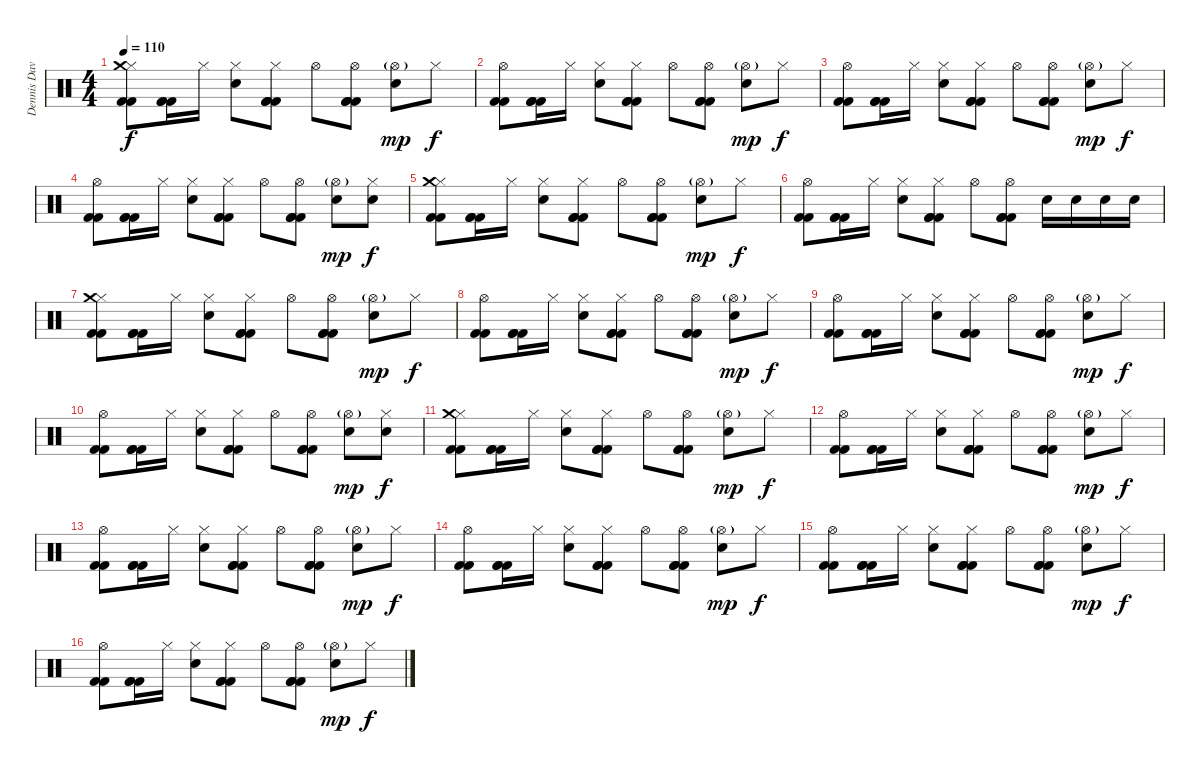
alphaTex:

\track ("Dennis Davis" "Dennis Dav") {instrument percussion}
\staff {score}
\articulation defaults
\ts (4 4)
\tempo 110
\clef neutral
\ks c
("Hi-Hat (closed)" "Crash medium (hit)" "Kick (hit) 2" "Kick (hit) 2").8{dy f} ("Kick (hit) 2" "Kick (hit) 2" "Kick (hit) 2").16 "Hi-Hat (closed)".16 ("Hi-Hat (closed)" "Snare (hit) 2").8 ("Hi-Hat (closed)" "Kick (hit) 2" "Kick (hit) 2" "Kick (hit) 2").8 "Hi-Hat (open)".8 ("Hi-Hat (open)" "Kick (hit) 2" "Kick (hit) 2" "Kick (hit) 2").8 ("Hi-Hat (open)"{g} "Snare (hit) 2").8{dy mp} "Hi-Hat (closed)".8{dy f} |
("Hi-Hat (open)" "Kick (hit) 2" "Kick (hit) 2").8 ("Kick (hit) 2" "Kick (hit) 2" "Kick (hit) 2").16 "Hi-Hat (closed)".16 ("Hi-Hat (closed)" "Snare (hit) 2").8 ("Hi-Hat (closed)" "Kick (hit) 2" "Kick (hit) 2" "Kick (hit) 2").8 "Hi-Hat (open)".8 ("Hi-Hat (open)" "Kick (hit) 2" "Kick (hit) 2" "Kick (hit) 2").8 ("Hi-Hat (open)"{g} "Snare (hit) 2").8{dy mp} "Hi-Hat (closed)".8{dy f} |
("Hi-Hat (open)" "Kick (hit) 2" "Kick (hit) 2").8 ("Kick (hit) 2" "Kick (hit) 2" "Kick (hit) 2").16 "Hi-Hat (closed)".16 ("Hi-Hat (closed)" "Snare (hit) 2").8 ("Hi-Hat (closed)" "Kick (hit) 2" "Kick (hit) 2" "Kick (hit) 2").8 "Hi-Hat (open)".8 ("Hi-Hat (open)" "Kick (hit) 2" "Kick (hit) 2" "Kick (hit) 2").8 ("Hi-Hat (open)"{g} "Snare (hit) 2").8{dy mp} "Hi-Hat (closed)".8{dy f} |
("Hi-Hat (open)" "Kick (hit) 2" "Kick (hit) 2").8 ("Kick (hit) 2" "Kick (hit) 2" "Kick (hit) 2").16 "Hi-Hat (closed)".16 ("Hi-Hat (closed)" "Snare (hit) 2").8 ("Hi-Hat (closed)" "Kick (hit) 2" "Kick (hit) 2" "Kick (hit) 2").8 "Hi-Hat (open)".8 ("Hi-Hat (open)" "Kick (hit) 2" "Kick (hit) 2" "Kick (hit) 2").8 ("Hi-Hat (open)"{g} "Snare (hit) 2").8{dy mp} ("Hi-Hat (closed)" "Snare (hit) 2").8{dy f} |
("Hi-Hat (closed)" "Crash medium (hit)" "Kick (hit) 2" "Kick (hit) 2").8 ("Kick (hit) 2" "Kick (hit) 2" "Kick (hit) 2").16 "Hi-Hat (closed)".16 ("Hi-Hat (closed)" "Snare (hit) 2").8 ("Hi-Hat (closed)" "Kick (hit) 2" "Kick (hit) 2" "Kick (hit) 2").8 "Hi-Hat (open)".8 ("Hi-Hat (open)" "Kick (hit) 2" "Kick (hit) 2" "Kick (hit) 2").8 ("Hi-Hat (open)"{g} "Snare (hit) 2").8{dy mp} "Hi-Hat (closed)".8{dy f} |
("Hi-Hat (open)" "Kick (hit) 2" "Kick (hit) 2").8 ("Kick (hit) 2" "Kick (hit) 2" "Kick (hit) 2").16 "Hi-Hat (closed)".16 ("Hi-Hat (closed)" "Snare (hit) 2").8 ("Hi-Hat (closed)" "Kick (hit) 2" "Kick (hit) 2" "Kick (hit) 2").8 "Hi-Hat (open)".8 ("Hi-Hat (open)" "Kick (hit) 2" "Kick (hit) 2" "Kick (hit) 2").8 "Snare (hit) 2".16 "Snare (hit) 2".16 "Snare (hit) 2".16 "Snare (hit) 2".16 |
("Hi-Hat (closed)" "Crash medium (hit)" "Kick (hit) 2" "Kick (hit) 2").8 ("Kick (hit) 2" "Kick (hit) 2" "Kick (hit) 2").16 "Hi-Hat (closed)".16 ("Hi-Hat (closed)" "Snare (hit) 2").8 ("Hi-Hat (closed)" "Kick (hit) 2" "Kick (hit) 2" "Kick (hit) 2").8 "Hi-Hat (open)".8 ("Hi-Hat (open)" "Kick (hit) 2" "Kick (hit) 2" "Kick (hit) 2").8 ("Hi-Hat (open)"{g} "Snare (hit) 2").8{dy mp} "Hi-Hat (closed)".8{dy f} |
("Hi-Hat (open)" "Kick (hit) 2" "Kick (hit) 2").8 ("Kick (hit) 2" "Kick (hit) 2" "Kick (hit) 2").16 "Hi-Hat (closed)".16 ("Hi-Hat (closed)" "Snare (hit) 2").8 ("Hi-Hat (closed)" "Kick (hit) 2" "Kick (hit) 2" "Kick (hit) 2").8 "Hi-Hat (open)".8 ("Hi-Hat (open)" "Kick (hit) 2" "Kick (hit) 2" "Kick (hit) 2").8 ("Hi-Hat (open)"{g} "Snare (hit) 2").8{dy mp} "Hi-Hat (closed)".8{dy f} |
("Hi-Hat (open)" "Kick (hit) 2" "Kick (hit) 2").8 ("Kick (hit) 2" "Kick (hit) 2" "Kick (hit) 2").16 "Hi-Hat (closed)".16 ("Hi-Hat (closed)" "Snare (hit) 2").8 ("Hi-Hat (closed)" "Kick (hit) 2" "Kick (hit) 2" "Kick (hit) 2").8 "Hi-Hat (open)".8 ("Hi-Hat (open)" "Kick (hit) 2" "Kick (hit) 2" "Kick (hit) 2").8 ("Hi-Hat (open)"{g} "Snare (hit) 2").8{dy mp} "Hi-Hat (closed)".8{dy f} |
("Hi-Hat (open)" "Kick (hit) 2" "Kick (hit) 2").8 ("Kick (hit) 2" "Kick (hit) 2" "Kick (hit) 2").16 "Hi-Hat (closed)".16 ("Hi-Hat (closed)" "Snare (hit) 2").8 ("Hi-Hat (closed)" "Kick (hit) 2" "Kick (hit) 2" "Kick (hit) 2").8 "Hi-Hat (open)".8 ("Hi-Hat (open)" "Kick (hit) 2" "Kick (hit) 2" "Kick (hit) 2").8 ("Hi-Hat (open)"{g} "Snare (hit) 2").8{dy mp} ("Hi-Hat (closed)" "Snare (hit) 2").8{dy f} |
("Hi-Hat (closed)" "Crash medium (hit)" "Kick (hit) 2" "Kick (hit) 2").8 ("Kick (hit) 2" "Kick (hit) 2" "Kick (hit) 2").16 "Hi-Hat (closed)".16 ("Hi-Hat (closed)" "Snare (hit) 2").8 ("Hi-Hat (closed)" "Kick (hit) 2" "Kick (hit) 2" "Kick (hit) 2").8 "Hi-Hat (open)".8 ("Hi-Hat (open)" "Kick (hit) 2" "Kick (hit) 2" "Kick (hit) 2").8 ("Hi-Hat (open)"{g} "Snare (hit) 2").8{dy mp} "Hi-Hat (closed)".8{dy f} |
("Hi-Hat (open)" "Kick (hit) 2" "Kick (hit) 2").8 ("Kick (hit) 2" "Kick (hit) 2" "Kick (hit) 2").16 "Hi-Hat (closed)".16 ("Hi-Hat (closed)" "Snare (hit) 2").8 ("Hi-Hat (closed)" "Kick (hit) 2" "Kick (hit) 2" "Kick (hit) 2").8 "Hi-Hat (open)".8 ("Hi-Hat (open)" "Kick (hit) 2" "Kick (hit) 2" "Kick (hit) 2").8 ("Hi-Hat (open)"{g} "Snare (hit) 2").8{dy mp} "Hi-Hat (closed)".8{dy f} |
("Hi-Hat (open)" "Kick (hit) 2" "Kick (hit) 2").8 ("Kick (hit) 2" "Kick (hit) 2" "Kick (hit) 2").16 "Hi-Hat (closed)".16 ("Hi-Hat (closed)" "Snare (hit) 2").8 ("Hi-Hat (closed)" "Kick (hit) 2" "Kick (hit) 2" "Kick (hit) 2").8 "Hi-Hat (open)".8 ("Hi-Hat (open)" "Kick (hit) 2" "Kick (hit) 2" "Kick (hit) 2").8 ("Hi-Hat (open)"{g} "Snare (hit) 2").8{dy mp} "Hi-Hat (closed)".8{dy f} |
("Hi-Hat (open)" "Kick (hit) 2" "Kick (hit) 2").8 ("Kick (hit) 2" "Kick (hit) 2" "Kick (hit) 2").16 "Hi-Hat (closed)".16 ("Hi-Hat (closed)" "Snare (hit) 2").8 ("Hi-Hat (closed)" "Kick (hit) 2" "Kick (hit) 2" "Kick (hit) 2").8 "Hi-Hat (open)".8 ("Hi-Hat (open)" "Kick (hit) 2" "Kick (hit) 2" "Kick (hit) 2").8 ("Hi-Hat (open)"{g} "Snare (hit) 2").8{dy mp} "Hi-Hat (closed)".8{dy f} |
("Hi-Hat (open)" "Kick (hit) 2" "Kick (hit) 2").8 ("Kick (hit) 2" "Kick (hit) 2" "Kick (hit) 2").16 "Hi-Hat (closed)".16 ("Hi-Hat (closed)" "Snare (hit) 2").8 ("Hi-Hat (closed)" "Kick (hit) 2" "Kick (hit) 2" "Kick (hit) 2").8 "Hi-Hat (open)".8 ("Hi-Hat (open)" "Kick (hit) 2" "Kick (hit) 2" "Kick (hit) 2").8 ("Hi-Hat (open)"{g} "Snare (hit) 2").8{dy mp} "Hi-Hat (closed)".8{dy f} |
("Hi-Hat (open)" "Kick (hit) 2" "Kick (hit) 2").8 ("Kick (hit) 2" "Kick (hit) 2" "Kick (hit) 2").16 "Hi-Hat (closed)".16 ("Hi-Hat (closed)" "Snare (hit) 2").8 ("Hi-Hat (closed)" "Kick (hit) 2" "Kick (hit) 2" "Kick (hit) 2").8 "Hi-Hat (open)".8 ("Hi-Hat (open)" "Kick (hit) 2" "Kick (hit) 2" "Kick (hit) 2").8 ("Hi-Hat (open)"{g} "Snare (hit) 2").8{dy mp} "Hi-Hat (closed)".8{dy f}
